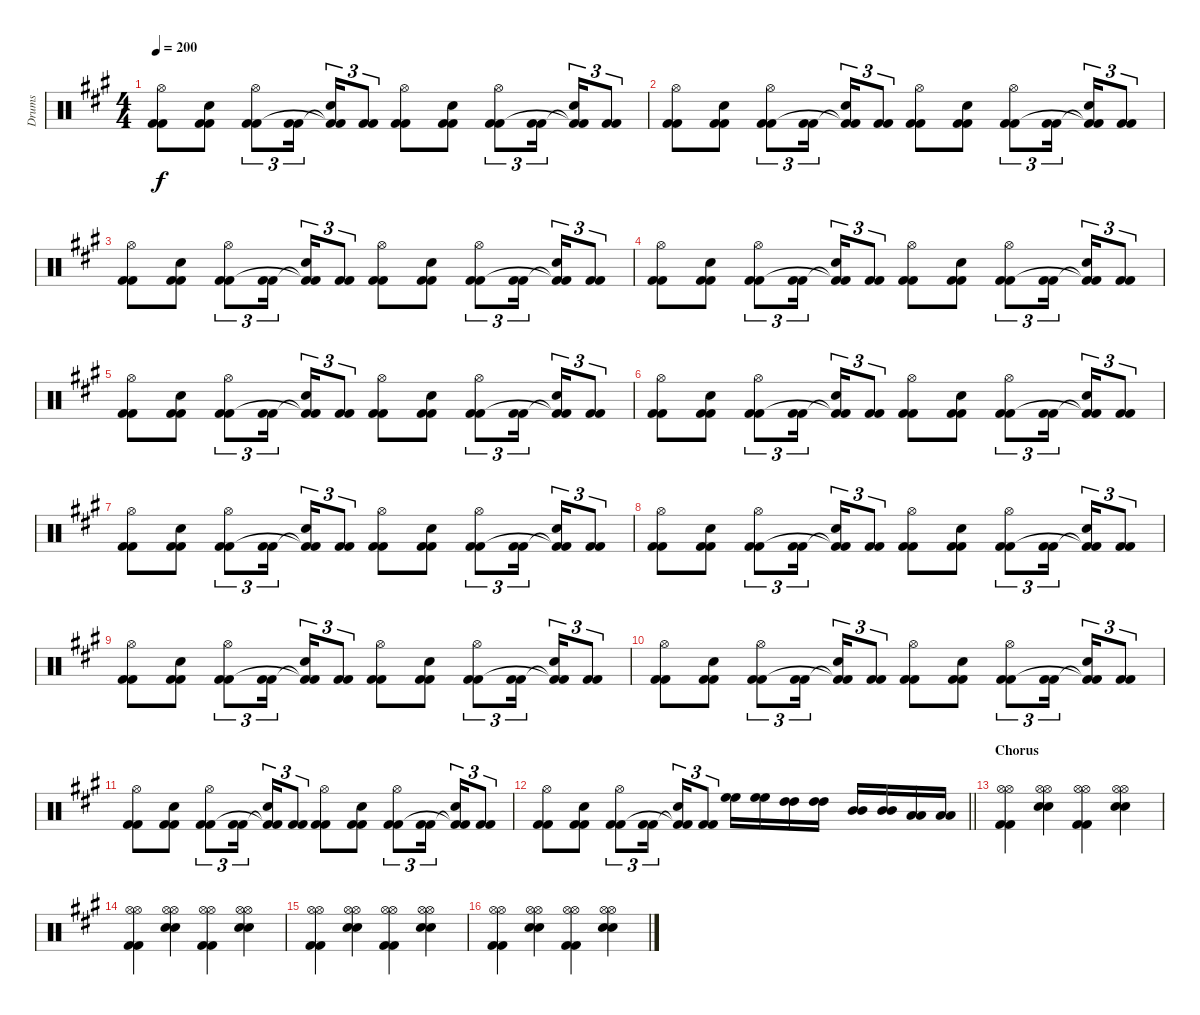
\track ("Drums" "Drums") {instrument percussion}
\staff {score}
\articulation defaults
\ts (4 4)
\tempo 200
\clef neutral
\ks f#minor
("Hi-Hat (open)" "Kick (hit) 2" "Kick (hit) 2").8{dy f} ("Snare (hit) 2" "Kick (hit) 2" "Kick (hit) 2").8 ("Hi-Hat (open)" "Kick (hit) 2" "Kick (hit) 2").8{tu (3 2)} ("Kick (hit) 2" "Kick (hit) 2").16{tu (3 2) beam splitsecondary} ("Snare (hit) 2" "Kick (hit) 2"{t} "Kick (hit) 2"{t}).16{tu (3 2)} ("Kick (hit) 2" "Kick (hit) 2").8{tu (3 2)} ("Hi-Hat (open)" "Kick (hit) 2" "Kick (hit) 2").8 ("Snare (hit) 2" "Kick (hit) 2" "Kick (hit) 2").8 ("Hi-Hat (open)" "Kick (hit) 2" "Kick (hit) 2").8{tu (3 2)} ("Kick (hit) 2" "Kick (hit) 2").16{tu (3 2) beam splitsecondary} ("Snare (hit) 2" "Kick (hit) 2"{t} "Kick (hit) 2"{t}).16{tu (3 2)} ("Kick (hit) 2" "Kick (hit) 2").8{tu (3 2)} |
("Hi-Hat (open)" "Kick (hit) 2" "Kick (hit) 2").8 ("Snare (hit) 2" "Kick (hit) 2" "Kick (hit) 2").8 ("Hi-Hat (open)" "Kick (hit) 2" "Kick (hit) 2").8{tu (3 2)} ("Kick (hit) 2" "Kick (hit) 2").16{tu (3 2) beam splitsecondary} ("Snare (hit) 2" "Kick (hit) 2"{t} "Kick (hit) 2"{t}).16{tu (3 2)} ("Kick (hit) 2" "Kick (hit) 2").8{tu (3 2)} ("Hi-Hat (open)" "Kick (hit) 2" "Kick (hit) 2").8 ("Snare (hit) 2" "Kick (hit) 2" "Kick (hit) 2").8 ("Hi-Hat (open)" "Kick (hit) 2" "Kick (hit) 2").8{tu (3 2)} ("Kick (hit) 2" "Kick (hit) 2").16{tu (3 2) beam splitsecondary} ("Snare (hit) 2" "Kick (hit) 2"{t} "Kick (hit) 2"{t}).16{tu (3 2)} ("Kick (hit) 2" "Kick (hit) 2").8{tu (3 2)} |
("Hi-Hat (open)" "Kick (hit) 2" "Kick (hit) 2").8 ("Snare (hit) 2" "Kick (hit) 2" "Kick (hit) 2").8 ("Hi-Hat (open)" "Kick (hit) 2" "Kick (hit) 2").8{tu (3 2)} ("Kick (hit) 2" "Kick (hit) 2").16{tu (3 2) beam splitsecondary} ("Snare (hit) 2" "Kick (hit) 2"{t} "Kick (hit) 2"{t}).16{tu (3 2)} ("Kick (hit) 2" "Kick (hit) 2").8{tu (3 2)} ("Hi-Hat (open)" "Kick (hit) 2" "Kick (hit) 2").8 ("Snare (hit) 2" "Kick (hit) 2" "Kick (hit) 2").8 ("Hi-Hat (open)" "Kick (hit) 2" "Kick (hit) 2").8{tu (3 2)} ("Kick (hit) 2" "Kick (hit) 2").16{tu (3 2) beam splitsecondary} ("Snare (hit) 2" "Kick (hit) 2"{t} "Kick (hit) 2"{t}).16{tu (3 2)} ("Kick (hit) 2" "Kick (hit) 2").8{tu (3 2)} |
("Hi-Hat (open)" "Kick (hit) 2" "Kick (hit) 2").8 ("Snare (hit) 2" "Kick (hit) 2" "Kick (hit) 2").8 ("Hi-Hat (open)" "Kick (hit) 2" "Kick (hit) 2").8{tu (3 2)} ("Kick (hit) 2" "Kick (hit) 2").16{tu (3 2) beam splitsecondary} ("Snare (hit) 2" "Kick (hit) 2"{t} "Kick (hit) 2"{t}).16{tu (3 2)} ("Kick (hit) 2" "Kick (hit) 2").8{tu (3 2)} ("Hi-Hat (open)" "Kick (hit) 2" "Kick (hit) 2").8 ("Snare (hit) 2" "Kick (hit) 2" "Kick (hit) 2").8 ("Hi-Hat (open)" "Kick (hit) 2" "Kick (hit) 2").8{tu (3 2)} ("Kick (hit) 2" "Kick (hit) 2").16{tu (3 2) beam splitsecondary} ("Snare (hit) 2" "Kick (hit) 2"{t} "Kick (hit) 2"{t}).16{tu (3 2)} ("Kick (hit) 2" "Kick (hit) 2").8{tu (3 2)} |
("Hi-Hat (open)" "Kick (hit) 2" "Kick (hit) 2").8 ("Snare (hit) 2" "Kick (hit) 2" "Kick (hit) 2").8 ("Hi-Hat (open)" "Kick (hit) 2" "Kick (hit) 2").8{tu (3 2)} ("Kick (hit) 2" "Kick (hit) 2").16{tu (3 2) beam splitsecondary} ("Snare (hit) 2" "Kick (hit) 2"{t} "Kick (hit) 2"{t}).16{tu (3 2)} ("Kick (hit) 2" "Kick (hit) 2").8{tu (3 2)} ("Hi-Hat (open)" "Kick (hit) 2" "Kick (hit) 2").8 ("Snare (hit) 2" "Kick (hit) 2" "Kick (hit) 2").8 ("Hi-Hat (open)" "Kick (hit) 2" "Kick (hit) 2").8{tu (3 2)} ("Kick (hit) 2" "Kick (hit) 2").16{tu (3 2) beam splitsecondary} ("Snare (hit) 2" "Kick (hit) 2"{t} "Kick (hit) 2"{t}).16{tu (3 2)} ("Kick (hit) 2" "Kick (hit) 2").8{tu (3 2)} |
("Hi-Hat (open)" "Kick (hit) 2" "Kick (hit) 2").8 ("Snare (hit) 2" "Kick (hit) 2" "Kick (hit) 2").8 ("Hi-Hat (open)" "Kick (hit) 2" "Kick (hit) 2").8{tu (3 2)} ("Kick (hit) 2" "Kick (hit) 2").16{tu (3 2) beam splitsecondary} ("Snare (hit) 2" "Kick (hit) 2"{t} "Kick (hit) 2"{t}).16{tu (3 2)} ("Kick (hit) 2" "Kick (hit) 2").8{tu (3 2)} ("Hi-Hat (open)" "Kick (hit) 2" "Kick (hit) 2").8 ("Snare (hit) 2" "Kick (hit) 2" "Kick (hit) 2").8 ("Hi-Hat (open)" "Kick (hit) 2" "Kick (hit) 2").8{tu (3 2)} ("Kick (hit) 2" "Kick (hit) 2").16{tu (3 2) beam splitsecondary} ("Snare (hit) 2" "Kick (hit) 2"{t} "Kick (hit) 2"{t}).16{tu (3 2)} ("Kick (hit) 2" "Kick (hit) 2").8{tu (3 2)} |
("Hi-Hat (open)" "Kick (hit) 2" "Kick (hit) 2").8 ("Snare (hit) 2" "Kick (hit) 2" "Kick (hit) 2").8 ("Hi-Hat (open)" "Kick (hit) 2" "Kick (hit) 2").8{tu (3 2)} ("Kick (hit) 2" "Kick (hit) 2").16{tu (3 2) beam splitsecondary} ("Snare (hit) 2" "Kick (hit) 2"{t} "Kick (hit) 2"{t}).16{tu (3 2)} ("Kick (hit) 2" "Kick (hit) 2").8{tu (3 2)} ("Hi-Hat (open)" "Kick (hit) 2" "Kick (hit) 2").8 ("Snare (hit) 2" "Kick (hit) 2" "Kick (hit) 2").8 ("Hi-Hat (open)" "Kick (hit) 2" "Kick (hit) 2").8{tu (3 2)} ("Kick (hit) 2" "Kick (hit) 2").16{tu (3 2) beam splitsecondary} ("Snare (hit) 2" "Kick (hit) 2"{t} "Kick (hit) 2"{t}).16{tu (3 2)} ("Kick (hit) 2" "Kick (hit) 2").8{tu (3 2)} |
("Hi-Hat (open)" "Kick (hit) 2" "Kick (hit) 2").8 ("Snare (hit) 2" "Kick (hit) 2" "Kick (hit) 2").8 ("Hi-Hat (open)" "Kick (hit) 2" "Kick (hit) 2").8{tu (3 2)} ("Kick (hit) 2" "Kick (hit) 2").16{tu (3 2) beam splitsecondary} ("Snare (hit) 2" "Kick (hit) 2"{t} "Kick (hit) 2"{t}).16{tu (3 2)} ("Kick (hit) 2" "Kick (hit) 2").8{tu (3 2)} ("Hi-Hat (open)" "Kick (hit) 2" "Kick (hit) 2").8 ("Snare (hit) 2" "Kick (hit) 2" "Kick (hit) 2").8 ("Hi-Hat (open)" "Kick (hit) 2" "Kick (hit) 2").8{tu (3 2)} ("Kick (hit) 2" "Kick (hit) 2").16{tu (3 2) beam splitsecondary} ("Snare (hit) 2" "Kick (hit) 2"{t} "Kick (hit) 2"{t}).16{tu (3 2)} ("Kick (hit) 2" "Kick (hit) 2").8{tu (3 2)} |
("Hi-Hat (open)" "Kick (hit) 2" "Kick (hit) 2").8 ("Snare (hit) 2" "Kick (hit) 2" "Kick (hit) 2").8 ("Hi-Hat (open)" "Kick (hit) 2" "Kick (hit) 2").8{tu (3 2)} ("Kick (hit) 2" "Kick (hit) 2").16{tu (3 2) beam splitsecondary} ("Snare (hit) 2" "Kick (hit) 2"{t} "Kick (hit) 2"{t}).16{tu (3 2)} ("Kick (hit) 2" "Kick (hit) 2").8{tu (3 2)} ("Hi-Hat (open)" "Kick (hit) 2" "Kick (hit) 2").8 ("Snare (hit) 2" "Kick (hit) 2" "Kick (hit) 2").8 ("Hi-Hat (open)" "Kick (hit) 2" "Kick (hit) 2").8{tu (3 2)} ("Kick (hit) 2" "Kick (hit) 2").16{tu (3 2) beam splitsecondary} ("Snare (hit) 2" "Kick (hit) 2"{t} "Kick (hit) 2"{t}).16{tu (3 2)} ("Kick (hit) 2" "Kick (hit) 2").8{tu (3 2)} |
("Hi-Hat (open)" "Kick (hit) 2" "Kick (hit) 2").8 ("Snare (hit) 2" "Kick (hit) 2" "Kick (hit) 2").8 ("Hi-Hat (open)" "Kick (hit) 2" "Kick (hit) 2").8{tu (3 2)} ("Kick (hit) 2" "Kick (hit) 2").16{tu (3 2) beam splitsecondary} ("Snare (hit) 2" "Kick (hit) 2"{t} "Kick (hit) 2"{t}).16{tu (3 2)} ("Kick (hit) 2" "Kick (hit) 2").8{tu (3 2)} ("Hi-Hat (open)" "Kick (hit) 2" "Kick (hit) 2").8 ("Snare (hit) 2" "Kick (hit) 2" "Kick (hit) 2").8 ("Hi-Hat (open)" "Kick (hit) 2" "Kick (hit) 2").8{tu (3 2)} ("Kick (hit) 2" "Kick (hit) 2").16{tu (3 2) beam splitsecondary} ("Snare (hit) 2" "Kick (hit) 2"{t} "Kick (hit) 2"{t}).16{tu (3 2)} ("Kick (hit) 2" "Kick (hit) 2").8{tu (3 2)} |
("Hi-Hat (open)" "Kick (hit) 2" "Kick (hit) 2").8 ("Snare (hit) 2" "Kick (hit) 2" "Kick (hit) 2").8 ("Hi-Hat (open)" "Kick (hit) 2" "Kick (hit) 2").8{tu (3 2)} ("Kick (hit) 2" "Kick (hit) 2").16{tu (3 2) beam splitsecondary} ("Snare (hit) 2" "Kick (hit) 2"{t} "Kick (hit) 2"{t}).16{tu (3 2)} ("Kick (hit) 2" "Kick (hit) 2").8{tu (3 2)} ("Hi-Hat (open)" "Kick (hit) 2" "Kick (hit) 2").8 ("Snare (hit) 2" "Kick (hit) 2" "Kick (hit) 2").8 ("Hi-Hat (open)" "Kick (hit) 2" "Kick (hit) 2").8{tu (3 2)} ("Kick (hit) 2" "Kick (hit) 2").16{tu (3 2) beam splitsecondary} ("Snare (hit) 2" "Kick (hit) 2"{t} "Kick (hit) 2"{t}).16{tu (3 2)} ("Kick (hit) 2" "Kick (hit) 2").8{tu (3 2)} |
\barLineRight lightlight
("Hi-Hat (open)" "Kick (hit) 2" "Kick (hit) 2").8 ("Snare (hit) 2" "Kick (hit) 2" "Kick (hit) 2").8 ("Hi-Hat (open)" "Kick (hit) 2" "Kick (hit) 2").8{tu (3 2)} ("Kick (hit) 2" "Kick (hit) 2").16{tu (3 2) beam splitsecondary} ("Snare (hit) 2" "Kick (hit) 2"{t} "Kick (hit) 2"{t}).16{tu (3 2)} ("Kick (hit) 2" "Kick (hit) 2").8{tu (3 2)} ("High Floor Tom (hit)" "High Floor Tom (hit)").16 ("High Floor Tom (hit)" "High Floor Tom (hit)").16 ("High Tom (hit)" "High Tom (hit)").16 ("High Tom (hit)" "High Tom (hit)").16 ("Mid Tom (hit)" "Mid Tom (hit)").16 ("Mid Tom (hit)" "Mid Tom (hit)").16 ("Low Tom (hit)" "Low Tom (hit)").16 ("Low Tom (hit)" "Low Tom (hit)").16 |
\section ("" "Chorus")
("Hi-Hat (open)" "Hi-Hat (open)" "Kick (hit) 2" "Kick (hit) 2").4 ("Hi-Hat (open)" "Hi-Hat (open)" "Snare (hit) 2" "Snare (hit) 2").4 ("Hi-Hat (open)" "Hi-Hat (open)" "Kick (hit) 2" "Kick (hit) 2").4 ("Hi-Hat (open)" "Hi-Hat (open)" "Snare (hit) 2" "Snare (hit) 2").4 |
("Hi-Hat (open)" "Hi-Hat (open)" "Kick (hit) 2" "Kick (hit) 2").4 ("Hi-Hat (open)" "Hi-Hat (open)" "Snare (hit) 2" "Snare (hit) 2").4 ("Hi-Hat (open)" "Hi-Hat (open)" "Kick (hit) 2" "Kick (hit) 2").4 ("Hi-Hat (open)" "Hi-Hat (open)" "Snare (hit) 2" "Snare (hit) 2").4 |
("Hi-Hat (open)" "Hi-Hat (open)" "Kick (hit) 2" "Kick (hit) 2").4 ("Hi-Hat (open)" "Hi-Hat (open)" "Snare (hit) 2" "Snare (hit) 2").4 ("Hi-Hat (open)" "Hi-Hat (open)" "Kick (hit) 2" "Kick (hit) 2").4 ("Hi-Hat (open)" "Hi-Hat (open)" "Snare (hit) 2" "Snare (hit) 2").4 |
("Hi-Hat (open)" "Hi-Hat (open)" "Kick (hit) 2" "Kick (hit) 2").4 ("Hi-Hat (open)" "Hi-Hat (open)" "Snare (hit) 2" "Snare (hit) 2").4 ("Hi-Hat (open)" "Hi-Hat (open)" "Kick (hit) 2" "Kick (hit) 2").4 ("Hi-Hat (open)" "Hi-Hat (open)" "Snare (hit) 2" "Snare (hit) 2").4
